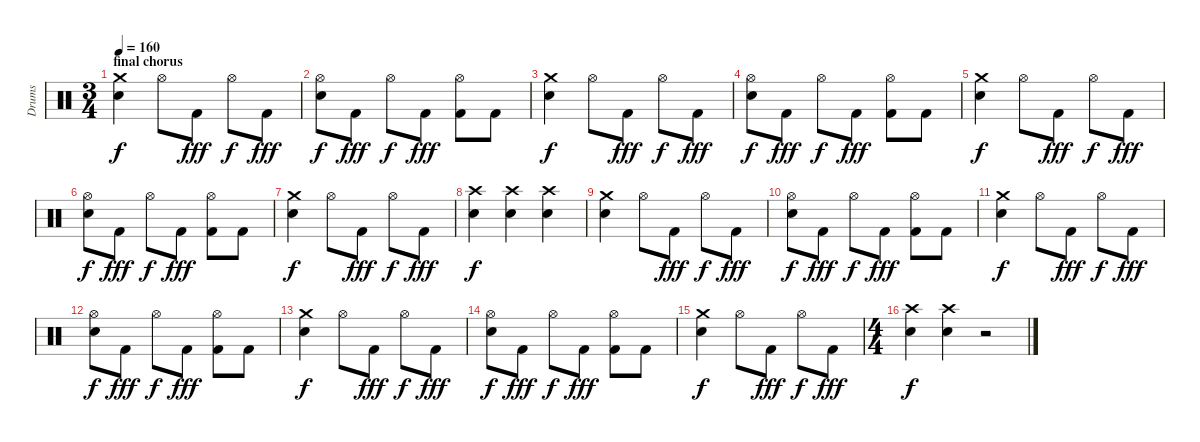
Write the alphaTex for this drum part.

\track ("Drums" "Drums") {instrument percussion}
\staff {score}
\articulation defaults
\ts (3 4)
\section ("" "final chorus")
\tempo 160
\clef neutral
\ks c
("Crash medium (hit)" "Electric Snare (hit)").4{dy f} "Hi-Hat (open)".8 "Kick (hit) 2".8{dy fff} "Hi-Hat (open)".8{dy f} "Kick (hit) 2".8{dy fff} |
("Hi-Hat (open)" "Electric Snare (hit)").8{dy f} "Kick (hit) 2".8{dy fff} "Hi-Hat (open)".8{dy f} "Kick (hit) 2".8{dy fff} ("Hi-Hat (open)" "Kick (hit) 2").8 "Kick (hit) 2".8 |
("Crash medium (hit)" "Electric Snare (hit)").4{dy f} "Hi-Hat (open)".8 "Kick (hit) 2".8{dy fff} "Hi-Hat (open)".8{dy f} "Kick (hit) 2".8{dy fff} |
("Hi-Hat (open)" "Electric Snare (hit)").8{dy f} "Kick (hit) 2".8{dy fff} "Hi-Hat (open)".8{dy f} "Kick (hit) 2".8{dy fff} ("Hi-Hat (open)" "Kick (hit) 2").8 "Kick (hit) 2".8 |
("Crash medium (hit)" "Electric Snare (hit)").4{dy f} "Hi-Hat (open)".8 "Kick (hit) 2".8{dy fff} "Hi-Hat (open)".8{dy f} "Kick (hit) 2".8{dy fff} |
("Hi-Hat (open)" "Electric Snare (hit)").8{dy f} "Kick (hit) 2".8{dy fff} "Hi-Hat (open)".8{dy f} "Kick (hit) 2".8{dy fff} ("Hi-Hat (open)" "Kick (hit) 2").8 "Kick (hit) 2".8 |
("Crash medium (hit)" "Electric Snare (hit)").4{dy f} "Hi-Hat (open)".8 "Kick (hit) 2".8{dy fff} "Hi-Hat (open)".8{dy f} "Kick (hit) 2".8{dy fff} |
("Crash high (hit)" "Electric Snare (hit)").4{dy f} ("Crash high (hit)" "Electric Snare (hit)").4 ("Crash high (hit)" "Electric Snare (hit)").4 |
("Crash medium (hit)" "Electric Snare (hit)").4 "Hi-Hat (open)".8 "Kick (hit) 2".8{dy fff} "Hi-Hat (open)".8{dy f} "Kick (hit) 2".8{dy fff} |
("Hi-Hat (open)" "Electric Snare (hit)").8{dy f} "Kick (hit) 2".8{dy fff} "Hi-Hat (open)".8{dy f} "Kick (hit) 2".8{dy fff} ("Hi-Hat (open)" "Kick (hit) 2").8 "Kick (hit) 2".8 |
("Crash medium (hit)" "Electric Snare (hit)").4{dy f} "Hi-Hat (open)".8 "Kick (hit) 2".8{dy fff} "Hi-Hat (open)".8{dy f} "Kick (hit) 2".8{dy fff} |
("Hi-Hat (open)" "Electric Snare (hit)").8{dy f} "Kick (hit) 2".8{dy fff} "Hi-Hat (open)".8{dy f} "Kick (hit) 2".8{dy fff} ("Hi-Hat (open)" "Kick (hit) 2").8 "Kick (hit) 2".8 |
("Crash medium (hit)" "Electric Snare (hit)").4{dy f} "Hi-Hat (open)".8 "Kick (hit) 2".8{dy fff} "Hi-Hat (open)".8{dy f} "Kick (hit) 2".8{dy fff} |
("Hi-Hat (open)" "Electric Snare (hit)").8{dy f} "Kick (hit) 2".8{dy fff} "Hi-Hat (open)".8{dy f} "Kick (hit) 2".8{dy fff} ("Hi-Hat (open)" "Kick (hit) 2").8 "Kick (hit) 2".8 |
("Crash medium (hit)" "Electric Snare (hit)").4{dy f} "Hi-Hat (open)".8 "Kick (hit) 2".8{dy fff} "Hi-Hat (open)".8{dy f} "Kick (hit) 2".8{dy fff} |
\ts (4 4)
("Crash high (hit)" "Electric Snare (hit)").4{dy f} ("Crash high (hit)" "Electric Snare (hit)").4 r.2
